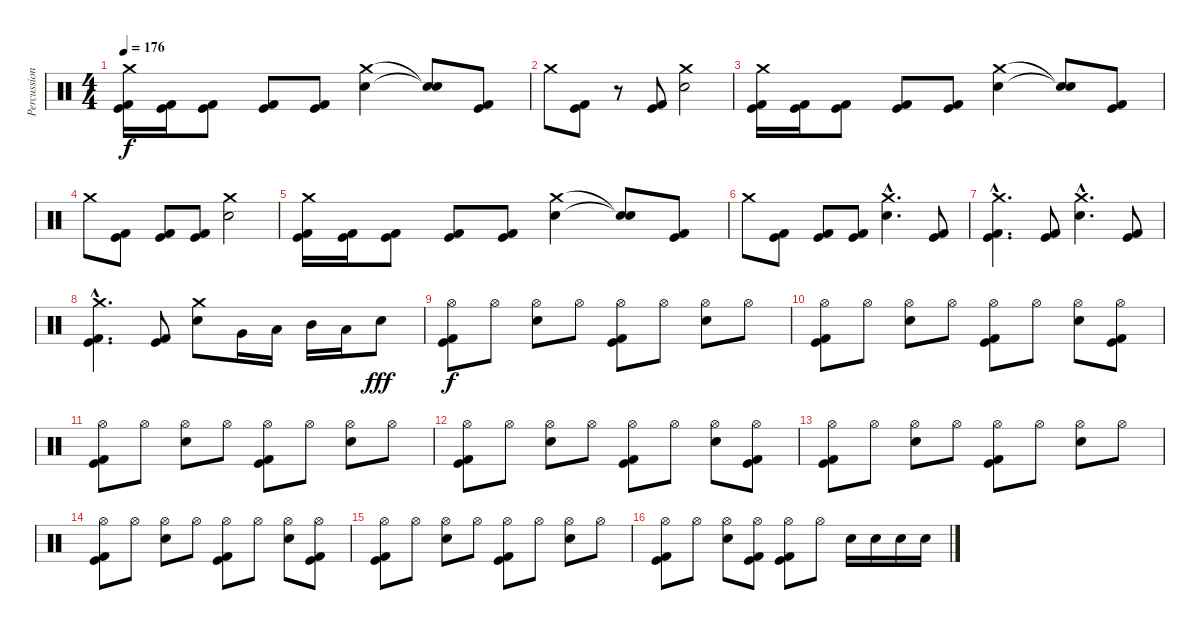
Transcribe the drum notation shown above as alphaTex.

\track ("Percussions" "Percussion") {instrument percussion}
\staff {score}
\articulation defaults
\ts (4 4)
\tempo 176
\clef neutral
\ks c
("Crash medium (hit)" "Kick (hit)" "Kick (hit) 2").16{dy f} ("Kick (hit)" "Kick (hit) 2").16 ("Kick (hit)" "Kick (hit) 2").8 ("Kick (hit)" "Kick (hit) 2").8 ("Kick (hit)" "Kick (hit) 2").8 ("Crash medium (hit)" "Electric Snare (hit)").4 ("Snare (hit)"{t} "Snare (hit)"{t}).8 ("Kick (hit)" "Kick (hit) 2").8 |
"Crash medium (hit)".8 ("Kick (hit)" "Kick (hit) 2").8 r.8 ("Kick (hit)" "Kick (hit) 2").8 ("Crash medium (hit)" "Electric Snare (hit)").2 |
("Crash medium (hit)" "Kick (hit)" "Kick (hit) 2").16 ("Kick (hit)" "Kick (hit) 2").16 ("Kick (hit)" "Kick (hit) 2").8 ("Kick (hit)" "Kick (hit) 2").8 ("Kick (hit)" "Kick (hit) 2").8 ("Crash medium (hit)" "Electric Snare (hit)").4 ("Snare (hit)"{t} "Snare (hit)"{t}).8 ("Kick (hit)" "Kick (hit) 2").8 |
"Crash medium (hit)".8 ("Kick (hit)" "Kick (hit) 2").8 ("Kick (hit)" "Kick (hit) 2").8 ("Kick (hit)" "Kick (hit) 2").8 ("Crash medium (hit)" "Electric Snare (hit)").2 |
("Crash medium (hit)" "Kick (hit)" "Kick (hit) 2").16 ("Kick (hit)" "Kick (hit) 2").16 ("Kick (hit)" "Kick (hit) 2").8 ("Kick (hit)" "Kick (hit) 2").8 ("Kick (hit)" "Kick (hit) 2").8 ("Crash medium (hit)" "Electric Snare (hit)").4 ("Snare (hit)"{t} "Snare (hit)"{t}).8 ("Kick (hit)" "Kick (hit) 2").8 |
"Crash medium (hit)".8 ("Kick (hit)" "Kick (hit) 2").8 ("Kick (hit)" "Kick (hit) 2").8 ("Kick (hit)" "Kick (hit) 2").8 ("Crash medium (hit)"{hac} "Electric Snare (hit)"{hac}).4{d} ("Kick (hit)" "Kick (hit) 2").8 |
("Crash medium (hit)"{hac} "Kick (hit)"{hac} "Kick (hit) 2"{hac}).4{d} ("Kick (hit)" "Kick (hit) 2").8 ("Crash medium (hit)"{hac} "Electric Snare (hit)"{hac}).4{d} ("Kick (hit)" "Kick (hit) 2").8 |
("Crash medium (hit)"{hac} "Kick (hit)"{hac} "Kick (hit) 2"{hac}).4{d} ("Kick (hit)" "Kick (hit) 2").8 ("Crash medium (hit)" "Electric Snare (hit)").8 "Very Low Tom (hit)".16 "Low Tom (hit)".16 "Mid Tom (hit)".16 "Low Tom (hit)".16 "Electric Snare (hit)".8{dy fff} |
("Hi-Hat (open)" "Kick (hit)" "Kick (hit) 2").8{dy f} "Hi-Hat (open)".8 ("Hi-Hat (open)" "Electric Snare (hit)").8 "Hi-Hat (open)".8 ("Hi-Hat (open)" "Kick (hit)" "Kick (hit) 2").8 "Hi-Hat (open)".8 ("Hi-Hat (open)" "Electric Snare (hit)").8 "Hi-Hat (open)".8 |
("Hi-Hat (open)" "Kick (hit)" "Kick (hit) 2").8 "Hi-Hat (open)".8 ("Hi-Hat (open)" "Electric Snare (hit)").8 "Hi-Hat (open)".8 ("Hi-Hat (open)" "Kick (hit)" "Kick (hit) 2").8 "Hi-Hat (open)".8 ("Hi-Hat (open)" "Electric Snare (hit)").8 ("Hi-Hat (open)" "Kick (hit)" "Kick (hit) 2").8 |
("Hi-Hat (open)" "Kick (hit)" "Kick (hit) 2").8 "Hi-Hat (open)".8 ("Hi-Hat (open)" "Electric Snare (hit)").8 "Hi-Hat (open)".8 ("Hi-Hat (open)" "Kick (hit)" "Kick (hit) 2").8 "Hi-Hat (open)".8 ("Hi-Hat (open)" "Electric Snare (hit)").8 "Hi-Hat (open)".8 |
("Hi-Hat (open)" "Kick (hit)" "Kick (hit) 2").8 "Hi-Hat (open)".8 ("Hi-Hat (open)" "Electric Snare (hit)").8 "Hi-Hat (open)".8 ("Hi-Hat (open)" "Kick (hit)" "Kick (hit) 2").8 "Hi-Hat (open)".8 ("Hi-Hat (open)" "Electric Snare (hit)").8 ("Hi-Hat (open)" "Kick (hit)" "Kick (hit) 2").8 |
("Hi-Hat (open)" "Kick (hit)" "Kick (hit) 2").8 "Hi-Hat (open)".8 ("Hi-Hat (open)" "Electric Snare (hit)").8 "Hi-Hat (open)".8 ("Hi-Hat (open)" "Kick (hit)" "Kick (hit) 2").8 "Hi-Hat (open)".8 ("Hi-Hat (open)" "Electric Snare (hit)").8 "Hi-Hat (open)".8 |
("Hi-Hat (open)" "Kick (hit)" "Kick (hit) 2").8 "Hi-Hat (open)".8 ("Hi-Hat (open)" "Electric Snare (hit)").8 "Hi-Hat (open)".8 ("Hi-Hat (open)" "Kick (hit)" "Kick (hit) 2").8 "Hi-Hat (open)".8 ("Hi-Hat (open)" "Electric Snare (hit)").8 ("Hi-Hat (open)" "Kick (hit)" "Kick (hit) 2").8 |
("Hi-Hat (open)" "Kick (hit)" "Kick (hit) 2").8 "Hi-Hat (open)".8 ("Hi-Hat (open)" "Electric Snare (hit)").8 "Hi-Hat (open)".8 ("Hi-Hat (open)" "Kick (hit)" "Kick (hit) 2").8 "Hi-Hat (open)".8 ("Hi-Hat (open)" "Electric Snare (hit)").8 "Hi-Hat (open)".8 |
("Hi-Hat (open)" "Kick (hit)" "Kick (hit) 2").8 "Hi-Hat (open)".8 ("Hi-Hat (open)" "Electric Snare (hit)").8 ("Hi-Hat (open)" "Kick (hit)" "Kick (hit) 2").8 ("Hi-Hat (open)" "Kick (hit)" "Kick (hit) 2").8 "Hi-Hat (open)".8 "Electric Snare (hit)".16 "Electric Snare (hit)".16 "Electric Snare (hit)".16 "Electric Snare (hit)".16
